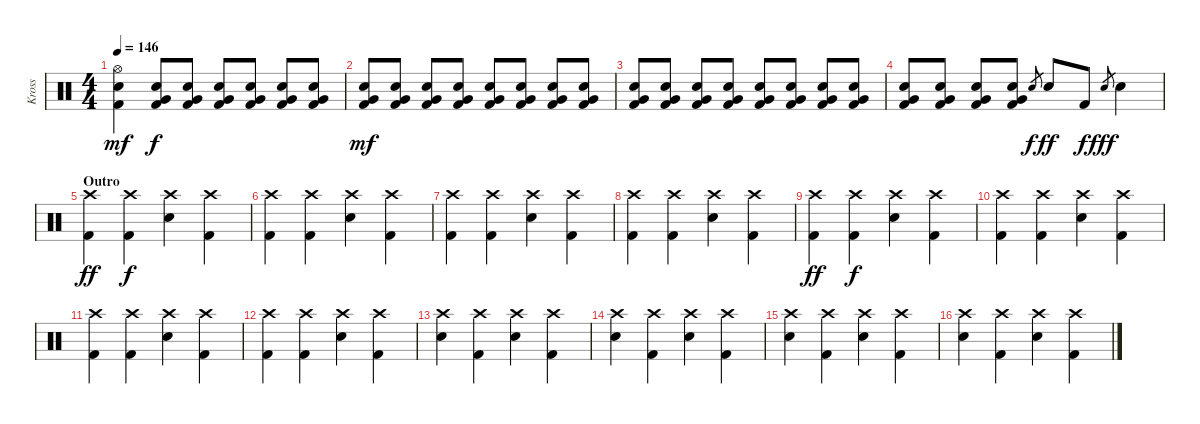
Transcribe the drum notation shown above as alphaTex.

\track ("Kross" "Kross") {instrument percussion}
\staff {score}
\articulation defaults
\ts (4 4)
\tempo 146
\clef neutral
\ks c
("Hi-Hat (open)" "Snare (hit) 2" "Kick (hit) 2").4{dy mf} ("Snare (hit) 2" "Very Low Tom (hit)" "Kick (hit) 2").8{dy f volume 8} ("Snare (hit) 2" "Very Low Tom (hit)" "Kick (hit) 2").8 ("Snare (hit) 2" "Very Low Tom (hit)" "Kick (hit) 2").8{volume 14} ("Snare (hit) 2" "Very Low Tom (hit)" "Kick (hit) 2").8 ("Snare (hit) 2" "Very Low Tom (hit)" "Kick (hit) 2").8 ("Snare (hit) 2" "Very Low Tom (hit)" "Kick (hit) 2").8 |
("Snare (hit) 2" "Very Low Tom (hit)" "Kick (hit) 2").8{dy mf} ("Snare (hit) 2" "Very Low Tom (hit)" "Kick (hit) 2").8 ("Snare (hit) 2" "Very Low Tom (hit)" "Kick (hit) 2").8 ("Snare (hit) 2" "Very Low Tom (hit)" "Kick (hit) 2").8 ("Snare (hit) 2" "Very Low Tom (hit)" "Kick (hit) 2").8 ("Snare (hit) 2" "Very Low Tom (hit)" "Kick (hit) 2").8 ("Snare (hit) 2" "Very Low Tom (hit)" "Kick (hit) 2").8 ("Snare (hit) 2" "Very Low Tom (hit)" "Kick (hit) 2").8 |
("Snare (hit) 2" "Very Low Tom (hit)" "Kick (hit) 2").8 ("Snare (hit) 2" "Very Low Tom (hit)" "Kick (hit) 2").8 ("Snare (hit) 2" "Very Low Tom (hit)" "Kick (hit) 2").8 ("Snare (hit) 2" "Very Low Tom (hit)" "Kick (hit) 2").8 ("Snare (hit) 2" "Very Low Tom (hit)" "Kick (hit) 2").8 ("Snare (hit) 2" "Very Low Tom (hit)" "Kick (hit) 2").8 ("Snare (hit) 2" "Very Low Tom (hit)" "Kick (hit) 2").8 ("Snare (hit) 2" "Very Low Tom (hit)" "Kick (hit) 2").8 |
("Snare (hit) 2" "Very Low Tom (hit)" "Kick (hit) 2").8 ("Snare (hit) 2" "Very Low Tom (hit)" "Kick (hit) 2").8 ("Snare (hit) 2" "Very Low Tom (hit)" "Kick (hit) 2").8 ("Snare (hit) 2" "Very Low Tom (hit)" "Kick (hit) 2").8 "Snare (hit) 2".8{gr dy f} "Snare (hit) 2".8{dy ff} "Kick (hit) 2".8{dy f} "Snare (hit) 2".8{gr dy fff} "Snare (hit) 2".4 |
\section ("" "Outro")
("Crash high (hit)" "Kick (hit) 2").4{dy ff volume 14} ("Crash high (hit)" "Kick (hit) 2").4{dy f} ("Crash high (hit)" "Snare (hit) 2").4 ("Crash high (hit)" "Kick (hit) 2").4 |
("Crash high (hit)" "Kick (hit) 2").4 ("Crash high (hit)" "Kick (hit) 2").4 ("Crash high (hit)" "Snare (hit) 2").4 ("Crash high (hit)" "Kick (hit) 2").4 |
("Crash high (hit)" "Kick (hit) 2").4 ("Crash high (hit)" "Kick (hit) 2").4 ("Crash high (hit)" "Snare (hit) 2").4 ("Crash high (hit)" "Kick (hit) 2").4 |
("Crash high (hit)" "Kick (hit) 2").4 ("Crash high (hit)" "Kick (hit) 2").4 ("Crash high (hit)" "Snare (hit) 2").4 ("Crash high (hit)" "Kick (hit) 2").4 |
("Crash high (hit)" "Kick (hit) 2").4{dy ff} ("Crash high (hit)" "Kick (hit) 2").4{dy f} ("Crash high (hit)" "Snare (hit) 2").4 ("Crash high (hit)" "Kick (hit) 2").4 |
("Crash high (hit)" "Kick (hit) 2").4 ("Crash high (hit)" "Kick (hit) 2").4 ("Crash high (hit)" "Snare (hit) 2").4 ("Crash high (hit)" "Kick (hit) 2").4 |
("Crash high (hit)" "Kick (hit) 2").4 ("Crash high (hit)" "Kick (hit) 2").4 ("Crash high (hit)" "Snare (hit) 2").4 ("Crash high (hit)" "Kick (hit) 2").4 |
("Crash high (hit)" "Kick (hit) 2").4 ("Crash high (hit)" "Kick (hit) 2").4 ("Crash high (hit)" "Snare (hit) 2").4 ("Crash high (hit)" "Kick (hit) 2").4 |
("Crash high (hit)" "Snare (hit) 2").4 ("Crash high (hit)" "Kick (hit) 2").4 ("Crash high (hit)" "Snare (hit) 2").4 ("Crash high (hit)" "Kick (hit) 2").4 |
("Crash high (hit)" "Snare (hit) 2").4 ("Crash high (hit)" "Kick (hit) 2").4 ("Crash high (hit)" "Snare (hit) 2").4 ("Crash high (hit)" "Kick (hit) 2").4 |
("Crash high (hit)" "Snare (hit) 2").4 ("Crash high (hit)" "Kick (hit) 2").4 ("Crash high (hit)" "Snare (hit) 2").4 ("Crash high (hit)" "Kick (hit) 2").4 |
("Crash high (hit)" "Snare (hit) 2").4 ("Crash high (hit)" "Kick (hit) 2").4 ("Crash high (hit)" "Snare (hit) 2").4 ("Crash high (hit)" "Kick (hit) 2").4
